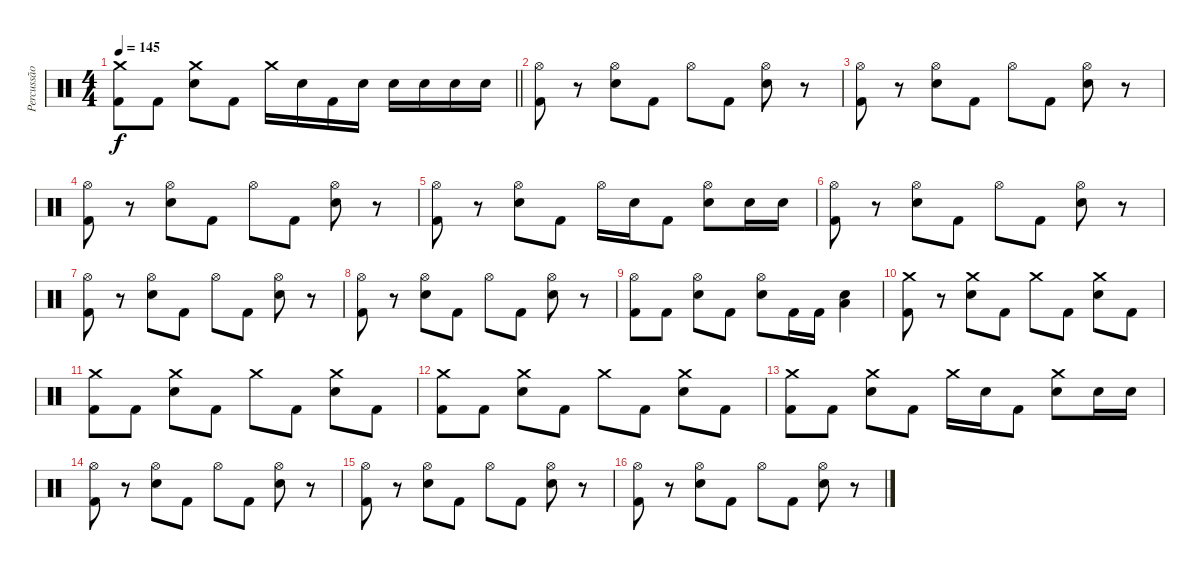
\track ("Percussão" "Percussão") {instrument percussion}
\staff {score}
\articulation defaults
\ts (4 4)
\tempo 145
\clef neutral
\barLineRight lightlight
\ks c
("Crash medium (hit)" "Kick (hit) 2").8{dy f} "Kick (hit) 2".8 ("Crash medium (hit)" "Electric Snare (hit)").8 "Kick (hit) 2".8 "Crash medium (hit)".16 "Electric Snare (hit)".16 "Kick (hit) 2".16 "Electric Snare (hit)".16 "Electric Snare (hit)".16 "Electric Snare (hit)".16 "Electric Snare (hit)".16 "Electric Snare (hit)".16 |
("Hi-Hat (open)" "Kick (hit) 2").8 r.8 ("Hi-Hat (open)" "Electric Snare (hit)").8 "Kick (hit) 2".8 "Hi-Hat (open)".8 "Kick (hit) 2".8 ("Hi-Hat (open)" "Electric Snare (hit)").8 r.8 |
("Hi-Hat (open)" "Kick (hit) 2").8 r.8 ("Hi-Hat (open)" "Electric Snare (hit)").8 "Kick (hit) 2".8 "Hi-Hat (open)".8 "Kick (hit) 2".8 ("Hi-Hat (open)" "Electric Snare (hit)").8 r.8 |
("Hi-Hat (open)" "Kick (hit) 2").8 r.8 ("Hi-Hat (open)" "Electric Snare (hit)").8 "Kick (hit) 2".8 "Hi-Hat (open)".8 "Kick (hit) 2".8 ("Hi-Hat (open)" "Electric Snare (hit)").8 r.8 |
("Hi-Hat (open)" "Kick (hit) 2").8 r.8 ("Hi-Hat (open)" "Electric Snare (hit)").8 "Kick (hit) 2".8 "Hi-Hat (open)".16 "Electric Snare (hit)".16 "Kick (hit) 2".8 ("Hi-Hat (open)" "Electric Snare (hit)").8 "Electric Snare (hit)".16 "Electric Snare (hit)".16 |
("Hi-Hat (open)" "Kick (hit) 2").8 r.8 ("Hi-Hat (open)" "Electric Snare (hit)").8 "Kick (hit) 2".8 "Hi-Hat (open)".8 "Kick (hit) 2".8 ("Hi-Hat (open)" "Electric Snare (hit)").8 r.8 |
("Hi-Hat (open)" "Kick (hit) 2").8 r.8 ("Hi-Hat (open)" "Electric Snare (hit)").8 "Kick (hit) 2".8 "Hi-Hat (open)".8 "Kick (hit) 2".8 ("Hi-Hat (open)" "Electric Snare (hit)").8 r.8 |
("Hi-Hat (open)" "Kick (hit) 2").8 r.8 ("Hi-Hat (open)" "Electric Snare (hit)").8 "Kick (hit) 2".8 "Hi-Hat (open)".8 "Kick (hit) 2".8 ("Hi-Hat (open)" "Electric Snare (hit)").8 r.8 |
("Hi-Hat (open)" "Kick (hit) 2").8 "Kick (hit) 2".8 ("Hi-Hat (open)" "Electric Snare (hit)").8 "Kick (hit) 2".8 ("Hi-Hat (open)" "Electric Snare (hit)").8 "Kick (hit) 2".16 "Kick (hit) 2".16 ("Electric Snare (hit)" "Low Tom (hit)").4 |
("Crash medium (hit)" "Kick (hit) 2").8 r.8 ("Crash medium (hit)" "Electric Snare (hit)").8 "Kick (hit) 2".8 "Crash medium (hit)".8 "Kick (hit) 2".8 ("Crash medium (hit)" "Electric Snare (hit)").8 "Kick (hit) 2".8 |
("Crash medium (hit)" "Kick (hit) 2").8 "Kick (hit) 2".8 ("Crash medium (hit)" "Electric Snare (hit)").8 "Kick (hit) 2".8 "Crash medium (hit)".8 "Kick (hit) 2".8 ("Crash medium (hit)" "Electric Snare (hit)").8 "Kick (hit) 2".8 |
("Crash medium (hit)" "Kick (hit) 2").8 "Kick (hit) 2".8 ("Crash medium (hit)" "Electric Snare (hit)").8 "Kick (hit) 2".8 "Crash medium (hit)".8 "Kick (hit) 2".8 ("Crash medium (hit)" "Electric Snare (hit)").8 "Kick (hit) 2".8 |
("Crash medium (hit)" "Kick (hit) 2").8 "Kick (hit) 2".8 ("Crash medium (hit)" "Electric Snare (hit)").8 "Kick (hit) 2".8 "Crash medium (hit)".16 "Electric Snare (hit)".16 "Kick (hit) 2".8 ("Crash medium (hit)" "Electric Snare (hit)").8 "Electric Snare (hit)".16 "Electric Snare (hit)".16 |
("Hi-Hat (open)" "Kick (hit) 2").8 r.8 ("Hi-Hat (open)" "Electric Snare (hit)").8 "Kick (hit) 2".8 "Hi-Hat (open)".8 "Kick (hit) 2".8 ("Hi-Hat (open)" "Electric Snare (hit)").8 r.8 |
("Hi-Hat (open)" "Kick (hit) 2").8 r.8 ("Hi-Hat (open)" "Electric Snare (hit)").8 "Kick (hit) 2".8 "Hi-Hat (open)".8 "Kick (hit) 2".8 ("Hi-Hat (open)" "Electric Snare (hit)").8 r.8 |
("Hi-Hat (open)" "Kick (hit) 2").8 r.8 ("Hi-Hat (open)" "Electric Snare (hit)").8 "Kick (hit) 2".8 "Hi-Hat (open)".8 "Kick (hit) 2".8 ("Hi-Hat (open)" "Electric Snare (hit)").8 r.8
